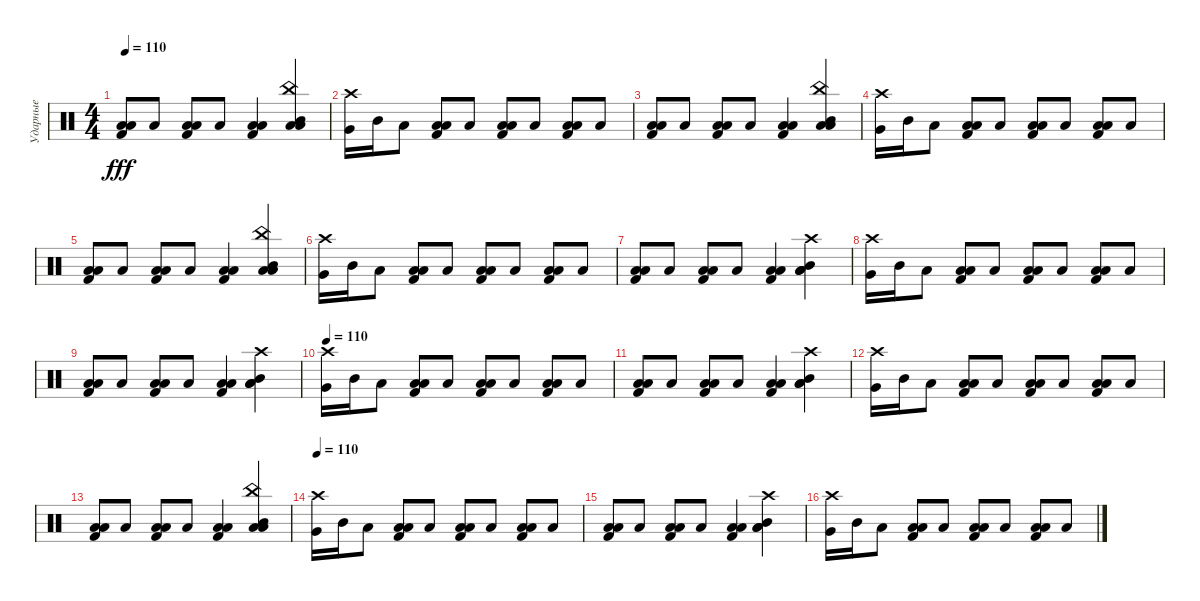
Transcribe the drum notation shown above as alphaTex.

\track ("Ударные" "Ударные") {instrument percussion}
\staff {score}
\articulation defaults
\ts (4 4)
\tempo 110
\clef neutral
\ks c
("Low Tom (hit)" "Kick (hit) 2" "Low Floor Tom (hit)").8{dy fff} "Low Floor Tom (hit)".8 ("Low Tom (hit)" "Kick (hit) 2" "Low Floor Tom (hit)").8 "Low Floor Tom (hit)".8 ("Low Tom (hit)" "Kick (hit) 2" "Low Floor Tom (hit)").4 ("China (hit)" "Low Tom (hit)" "Mid Tom (hit)" "Low Floor Tom (hit)").4 |
("Crash high (hit)" "Very Low Tom (hit)").16 "Mid Tom (hit)".16 "Low Floor Tom (hit)".8 ("Low Tom (hit)" "Kick (hit) 2" "Low Floor Tom (hit)").8 "Low Floor Tom (hit)".8 ("Low Tom (hit)" "Kick (hit) 2" "Low Floor Tom (hit)").8 "Low Floor Tom (hit)".8 ("Low Tom (hit)" "Kick (hit) 2" "Low Floor Tom (hit)").8 "Low Floor Tom (hit)".8 |
("Low Tom (hit)" "Kick (hit) 2" "Low Floor Tom (hit)").8 "Low Floor Tom (hit)".8 ("Low Tom (hit)" "Kick (hit) 2" "Low Floor Tom (hit)").8 "Low Floor Tom (hit)".8 ("Low Tom (hit)" "Kick (hit) 2" "Low Floor Tom (hit)").4 ("China (hit)" "Low Tom (hit)" "Mid Tom (hit)" "Low Floor Tom (hit)").4 |
("Crash high (hit)" "Very Low Tom (hit)").16 "Mid Tom (hit)".16 "Low Floor Tom (hit)".8 ("Low Tom (hit)" "Kick (hit) 2" "Low Floor Tom (hit)").8 "Low Floor Tom (hit)".8 ("Low Tom (hit)" "Kick (hit) 2" "Low Floor Tom (hit)").8 "Low Floor Tom (hit)".8 ("Low Tom (hit)" "Kick (hit) 2" "Low Floor Tom (hit)").8 "Low Floor Tom (hit)".8 |
("Low Tom (hit)" "Kick (hit) 2" "Low Floor Tom (hit)").8 "Low Floor Tom (hit)".8 ("Low Tom (hit)" "Kick (hit) 2" "Low Floor Tom (hit)").8 "Low Floor Tom (hit)".8 ("Low Tom (hit)" "Kick (hit) 2" "Low Floor Tom (hit)").4 ("China (hit)" "Low Tom (hit)" "Mid Tom (hit)" "Low Floor Tom (hit)").4 |
("Crash high (hit)" "Very Low Tom (hit)").16 "Mid Tom (hit)".16 "Low Floor Tom (hit)".8 ("Low Tom (hit)" "Kick (hit) 2" "Low Floor Tom (hit)").8 "Low Floor Tom (hit)".8 ("Low Tom (hit)" "Kick (hit) 2" "Low Floor Tom (hit)").8 "Low Floor Tom (hit)".8 ("Low Tom (hit)" "Kick (hit) 2" "Low Floor Tom (hit)").8 "Low Floor Tom (hit)".8 |
("Low Tom (hit)" "Kick (hit) 2" "Low Floor Tom (hit)").8 "Low Floor Tom (hit)".8 ("Low Tom (hit)" "Kick (hit) 2" "Low Floor Tom (hit)").8 "Low Floor Tom (hit)".8 ("Low Tom (hit)" "Kick (hit) 2" "Low Floor Tom (hit)").4 ("Crash high (hit)" "Low Tom (hit)" "Mid Tom (hit)" "Low Floor Tom (hit)").4 |
("Crash high (hit)" "Very Low Tom (hit)").16 "Mid Tom (hit)".16 "Low Floor Tom (hit)".8 ("Low Tom (hit)" "Kick (hit) 2" "Low Floor Tom (hit)").8 "Low Floor Tom (hit)".8 ("Low Tom (hit)" "Kick (hit) 2" "Low Floor Tom (hit)").8 "Low Floor Tom (hit)".8 ("Low Tom (hit)" "Kick (hit) 2" "Low Floor Tom (hit)").8 "Low Floor Tom (hit)".8 |
("Low Tom (hit)" "Kick (hit) 2" "Low Floor Tom (hit)").8 "Low Floor Tom (hit)".8 ("Low Tom (hit)" "Kick (hit) 2" "Low Floor Tom (hit)").8 "Low Floor Tom (hit)".8 ("Low Tom (hit)" "Kick (hit) 2" "Low Floor Tom (hit)").4 ("Crash high (hit)" "Low Tom (hit)" "Mid Tom (hit)" "Low Floor Tom (hit)").4 |
\tempo 110
("Crash high (hit)" "Very Low Tom (hit)").16 "Mid Tom (hit)".16 "Low Floor Tom (hit)".8 ("Low Tom (hit)" "Kick (hit) 2" "Low Floor Tom (hit)").8 "Low Floor Tom (hit)".8 ("Low Tom (hit)" "Kick (hit) 2" "Low Floor Tom (hit)").8 "Low Floor Tom (hit)".8 ("Low Tom (hit)" "Kick (hit) 2" "Low Floor Tom (hit)").8 "Low Floor Tom (hit)".8 |
("Low Tom (hit)" "Kick (hit) 2" "Low Floor Tom (hit)").8 "Low Floor Tom (hit)".8 ("Low Tom (hit)" "Kick (hit) 2" "Low Floor Tom (hit)").8 "Low Floor Tom (hit)".8 ("Low Tom (hit)" "Kick (hit) 2" "Low Floor Tom (hit)").4 ("Crash high (hit)" "Low Tom (hit)" "Mid Tom (hit)" "Low Floor Tom (hit)").4 |
("Crash high (hit)" "Very Low Tom (hit)").16 "Mid Tom (hit)".16 "Low Floor Tom (hit)".8 ("Low Tom (hit)" "Kick (hit) 2" "Low Floor Tom (hit)").8 "Low Floor Tom (hit)".8 ("Low Tom (hit)" "Kick (hit) 2" "Low Floor Tom (hit)").8 "Low Floor Tom (hit)".8 ("Low Tom (hit)" "Kick (hit) 2" "Low Floor Tom (hit)").8 "Low Floor Tom (hit)".8 |
("Low Tom (hit)" "Kick (hit) 2" "Low Floor Tom (hit)").8 "Low Floor Tom (hit)".8 ("Low Tom (hit)" "Kick (hit) 2" "Low Floor Tom (hit)").8 "Low Floor Tom (hit)".8 ("Low Tom (hit)" "Kick (hit) 2" "Low Floor Tom (hit)").4 ("China (hit)" "Low Tom (hit)" "Mid Tom (hit)" "Low Floor Tom (hit)").4 |
\tempo 110
("Crash high (hit)" "Very Low Tom (hit)").16 "Mid Tom (hit)".16 "Low Floor Tom (hit)".8 ("Low Tom (hit)" "Kick (hit) 2" "Low Floor Tom (hit)").8 "Low Floor Tom (hit)".8 ("Low Tom (hit)" "Kick (hit) 2" "Low Floor Tom (hit)").8 "Low Floor Tom (hit)".8 ("Low Tom (hit)" "Kick (hit) 2" "Low Floor Tom (hit)").8 "Low Floor Tom (hit)".8 |
("Low Tom (hit)" "Kick (hit) 2" "Low Floor Tom (hit)").8 "Low Floor Tom (hit)".8 ("Low Tom (hit)" "Kick (hit) 2" "Low Floor Tom (hit)").8 "Low Floor Tom (hit)".8 ("Low Tom (hit)" "Kick (hit) 2" "Low Floor Tom (hit)").4 ("Crash high (hit)" "Low Tom (hit)" "Mid Tom (hit)" "Low Floor Tom (hit)").4 |
("Crash high (hit)" "Very Low Tom (hit)").16 "Mid Tom (hit)".16 "Low Floor Tom (hit)".8 ("Low Tom (hit)" "Kick (hit) 2" "Low Floor Tom (hit)").8 "Low Floor Tom (hit)".8 ("Low Tom (hit)" "Kick (hit) 2" "Low Floor Tom (hit)").8 "Low Floor Tom (hit)".8 ("Low Tom (hit)" "Kick (hit) 2" "Low Floor Tom (hit)").8 "Low Floor Tom (hit)".8
